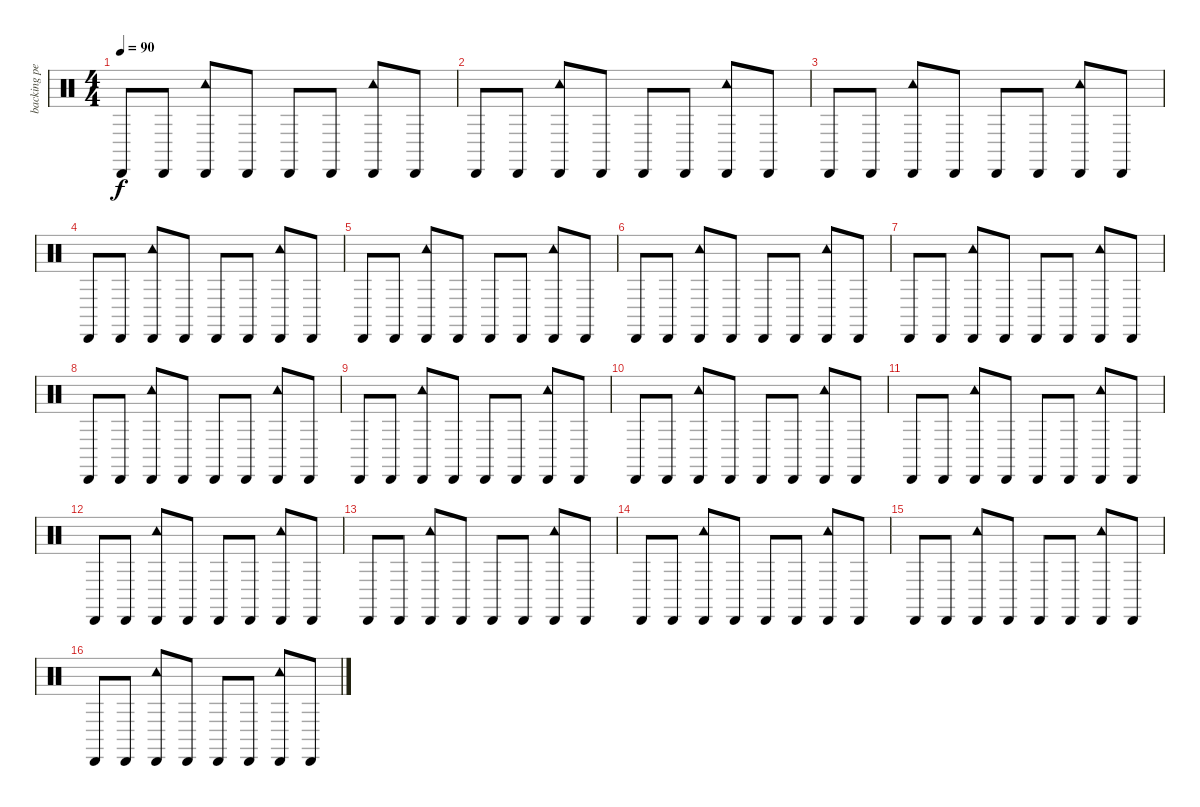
\track ("backing percussion" "backing pe") {instrument percussion}
\staff {score}
\articulation defaults
\ts (4 4)
\tempo 90
\clef neutral
\ks c "Cabasa (hit)".8{dy f} "Cabasa (hit)".8
("Cabasa (hit)" "Tambourine (hit)").8 "Cabasa (hit)".8 "Cabasa (hit)".8 "Cabasa (hit)".8 ("Cabasa (hit)" "Tambourine (hit)").8 "Cabasa (hit)".8 |
"Cabasa (hit)".8 "Cabasa (hit)".8 ("Cabasa (hit)" "Tambourine (hit)").8 "Cabasa (hit)".8 "Cabasa (hit)".8 "Cabasa (hit)".8 ("Cabasa (hit)" "Tambourine (hit)").8 "Cabasa (hit)".8 |
"Cabasa (hit)".8 "Cabasa (hit)".8 ("Cabasa (hit)" "Tambourine (hit)").8 "Cabasa (hit)".8 "Cabasa (hit)".8 "Cabasa (hit)".8 ("Cabasa (hit)" "Tambourine (hit)").8 "Cabasa (hit)".8 |
"Cabasa (hit)".8 "Cabasa (hit)".8 ("Cabasa (hit)" "Tambourine (hit)").8 "Cabasa (hit)".8 "Cabasa (hit)".8 "Cabasa (hit)".8 ("Cabasa (hit)" "Tambourine (hit)").8 "Cabasa (hit)".8 |
"Cabasa (hit)".8 "Cabasa (hit)".8 ("Cabasa (hit)" "Tambourine (hit)").8 "Cabasa (hit)".8 "Cabasa (hit)".8 "Cabasa (hit)".8 ("Cabasa (hit)" "Tambourine (hit)").8 "Cabasa (hit)".8 |
"Cabasa (hit)".8 "Cabasa (hit)".8 ("Cabasa (hit)" "Tambourine (hit)").8 "Cabasa (hit)".8 "Cabasa (hit)".8 "Cabasa (hit)".8 ("Cabasa (hit)" "Tambourine (hit)").8 "Cabasa (hit)".8 |
"Cabasa (hit)".8 "Cabasa (hit)".8 ("Cabasa (hit)" "Tambourine (hit)").8 "Cabasa (hit)".8 "Cabasa (hit)".8 "Cabasa (hit)".8 ("Cabasa (hit)" "Tambourine (hit)").8 "Cabasa (hit)".8 |
"Cabasa (hit)".8 "Cabasa (hit)".8 ("Cabasa (hit)" "Tambourine (hit)").8 "Cabasa (hit)".8 "Cabasa (hit)".8 "Cabasa (hit)".8 ("Cabasa (hit)" "Tambourine (hit)").8 "Cabasa (hit)".8 |
"Cabasa (hit)".8 "Cabasa (hit)".8 ("Cabasa (hit)" "Tambourine (hit)").8 "Cabasa (hit)".8 "Cabasa (hit)".8 "Cabasa (hit)".8 ("Cabasa (hit)" "Tambourine (hit)").8 "Cabasa (hit)".8 |
"Cabasa (hit)".8 "Cabasa (hit)".8 ("Cabasa (hit)" "Tambourine (hit)").8 "Cabasa (hit)".8 "Cabasa (hit)".8 "Cabasa (hit)".8 ("Cabasa (hit)" "Tambourine (hit)").8 "Cabasa (hit)".8 |
"Cabasa (hit)".8 "Cabasa (hit)".8 ("Cabasa (hit)" "Tambourine (hit)").8 "Cabasa (hit)".8 "Cabasa (hit)".8 "Cabasa (hit)".8 ("Cabasa (hit)" "Tambourine (hit)").8 "Cabasa (hit)".8 |
"Cabasa (hit)".8 "Cabasa (hit)".8 ("Cabasa (hit)" "Tambourine (hit)").8 "Cabasa (hit)".8 "Cabasa (hit)".8 "Cabasa (hit)".8 ("Cabasa (hit)" "Tambourine (hit)").8 "Cabasa (hit)".8 |
"Cabasa (hit)".8 "Cabasa (hit)".8 ("Cabasa (hit)" "Tambourine (hit)").8 "Cabasa (hit)".8 "Cabasa (hit)".8 "Cabasa (hit)".8 ("Cabasa (hit)" "Tambourine (hit)").8 "Cabasa (hit)".8 |
"Cabasa (hit)".8 "Cabasa (hit)".8 ("Cabasa (hit)" "Tambourine (hit)").8 "Cabasa (hit)".8 "Cabasa (hit)".8 "Cabasa (hit)".8 ("Cabasa (hit)" "Tambourine (hit)").8 "Cabasa (hit)".8 |
"Cabasa (hit)".8 "Cabasa (hit)".8 ("Cabasa (hit)" "Tambourine (hit)").8 "Cabasa (hit)".8 "Cabasa (hit)".8 "Cabasa (hit)".8 ("Cabasa (hit)" "Tambourine (hit)").8 "Cabasa (hit)".8 |
"Cabasa (hit)".8 "Cabasa (hit)".8 ("Cabasa (hit)" "Tambourine (hit)").8 "Cabasa (hit)".8 "Cabasa (hit)".8 "Cabasa (hit)".8 ("Cabasa (hit)" "Tambourine (hit)").8 "Cabasa (hit)".8
